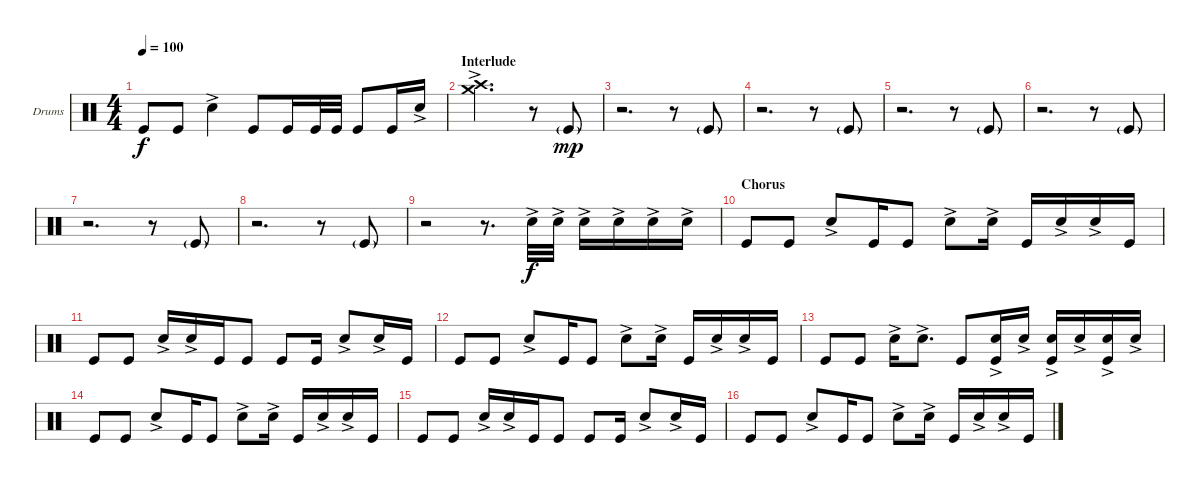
\bracketExtendMode groupsimilarinstruments
\firstSystemTrackNameOrientation horizontal
\otherSystemsTrackNameOrientation horizontal
\track ("Drums rhythm" "Drums") {instrument percussion}
\staff {score}
\articulation defaults
\ts (4 4)
\tempo 100
\clef neutral
\ks c "Kick (hit)".8{dy f} "Kick (hit)".8 "Snare (hit) 2"{ac}.4 "Kick (hit)".8 "Kick (hit)".16 "Kick (hit)".32 "Kick (hit)".32 "Kick (hit)".8 "Kick (hit)".16 "Snare (hit) 2"{ac}.16
|
\section ("" "Interlude")
("Crash medium (hit)"{ac} "Crash high (hit)"{ac}).2{d} r.8 "Kick (hit)"{g}.8{dy mp} |
r.2{d} r.8 "Kick (hit)"{g}.8 |
r.2{d} r.8 "Kick (hit)"{g}.8 |
r.2{d} r.8 "Kick (hit)"{g}.8 |
r.2{d} r.8 "Kick (hit)"{g}.8 |
r.2{d} r.8 "Kick (hit)"{g}.8 |
\scale
0.161849 r.2{d} r.8 "Kick (hit)"{g}.8 |
\scale
0.227136 r.2 r.8{d} "Snare (hit) 2"{ac}.32{dy f} "Snare (hit) 2"{ac}.32 "Snare (hit) 2"{ac}.16 "Snare (hit) 2"{ac}.16 "Snare (hit) 2"{ac}.16 "Snare (hit) 2"{ac}.16 |
\section ("" "Chorus")
\scale
0.322612 "Kick (hit)".8 "Kick (hit)".8 "Snare (hit) 2"{ac}.8 "Kick (hit)".16 "Kick (hit)".8 "Snare (hit) 2"{ac}.8 "Snare (hit) 2"{ac}.16 "Kick (hit)".16 "Snare (hit) 2"{ac}.16 "Snare (hit) 2"{ac}.16 "Kick (hit)".16 |
\scale
0.288352 "Kick (hit)".8 "Kick (hit)".8 "Snare (hit) 2"{ac}.16 "Snare (hit) 2"{ac}.16 "Kick (hit)".16 "Kick (hit)".8 "Kick (hit)".8 "Kick (hit)".16 "Snare (hit) 2"{ac}.8 "Snare (hit) 2"{ac}.16 "Kick (hit)".16 |
"Kick (hit)".8 "Kick (hit)".8 "Snare (hit) 2"{ac}.8 "Kick (hit)".16 "Kick (hit)".8 "Snare (hit) 2"{ac}.8 "Snare (hit) 2"{ac}.16 "Kick (hit)".16 "Snare (hit) 2"{ac}.16 "Snare (hit) 2"{ac}.16 "Kick (hit)".16 |
"Kick (hit)".8 "Kick (hit)".8 "Snare (hit) 2"{ac}.16 "Snare (hit) 2"{ac}.8{d} "Kick (hit)".8 ("Kick (hit)" "Snare (hit) 2"{ac}).16 "Snare (hit) 2"{ac}.16 ("Snare (hit) 2"{ac} "Kick (hit)").16 "Snare (hit) 2"{ac}.16 ("Snare (hit) 2"{ac} "Kick (hit)").16 "Snare (hit) 2"{ac}.16 |
"Kick (hit)".8 "Kick (hit)".8 "Snare (hit) 2"{ac}.8 "Kick (hit)".16 "Kick (hit)".8 "Snare (hit) 2"{ac}.8 "Snare (hit) 2"{ac}.16 "Kick (hit)".16 "Snare (hit) 2"{ac}.16 "Snare (hit) 2"{ac}.16 "Kick (hit)".16 |
"Kick (hit)".8 "Kick (hit)".8 "Snare (hit) 2"{ac}.16 "Snare (hit) 2"{ac}.16 "Kick (hit)".16 "Kick (hit)".8 "Kick (hit)".8 "Kick (hit)".16 "Snare (hit) 2"{ac}.8 "Snare (hit) 2"{ac}.16 "Kick (hit)".16 |
"Kick (hit)".8 "Kick (hit)".8 "Snare (hit) 2"{ac}.8 "Kick (hit)".16 "Kick (hit)".8 "Snare (hit) 2"{ac}.8 "Snare (hit) 2"{ac}.16 "Kick (hit)".16 "Snare (hit) 2"{ac}.16 "Snare (hit) 2"{ac}.16 "Kick (hit)".16
